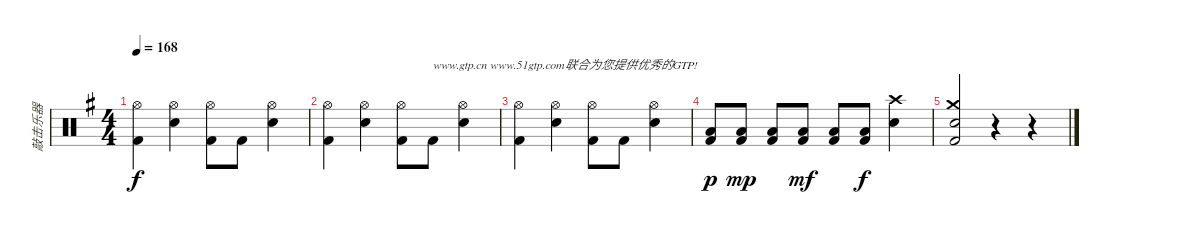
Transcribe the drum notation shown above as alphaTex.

\track ("敲击乐器" "敲击乐器") {instrument percussion}
\staff {score}
\articulation defaults
\ts (4 4)
\tempo 168
\clef neutral
\ks g
("Hi-Hat (open)" "Kick (hit) 2").4{dy f} ("Hi-Hat (open)" "Snare (hit) 2").4 ("Hi-Hat (open)" "Kick (hit) 2").8 "Kick (hit) 2".8 ("Hi-Hat (open)" "Snare (hit) 2").4 |
("Hi-Hat (open)" "Kick (hit) 2").4 ("Hi-Hat (open)" "Snare (hit) 2").4 ("Hi-Hat (open)" "Kick (hit) 2").8 "Kick (hit) 2".8{txt "www.gtp.cn www.51gtp.com联合为您提供优秀的GTP!"} ("Hi-Hat (open)" "Snare (hit) 2").4 |
("Hi-Hat (open)" "Kick (hit) 2").4 ("Hi-Hat (open)" "Snare (hit) 2").4 ("Hi-Hat (open)" "Kick (hit) 2").8 "Kick (hit) 2".8 ("Hi-Hat (open)" "Snare (hit) 2").4 |
("Low Tom (hit)" "Kick (hit) 2").8{dy p} ("Low Tom (hit)" "Kick (hit) 2").8{dy mp} ("Low Tom (hit)" "Kick (hit) 2").8 ("Low Tom (hit)" "Kick (hit) 2").8{dy mf} ("Low Tom (hit)" "Kick (hit) 2").8 ("Low Tom (hit)" "Kick (hit) 2").8{dy f} ("Crash high (hit)" "Snare (hit) 2").4 |
("Crash medium (hit)" "Kick (hit) 2" "Electric Snare (hit)").2 r.4 r.4
